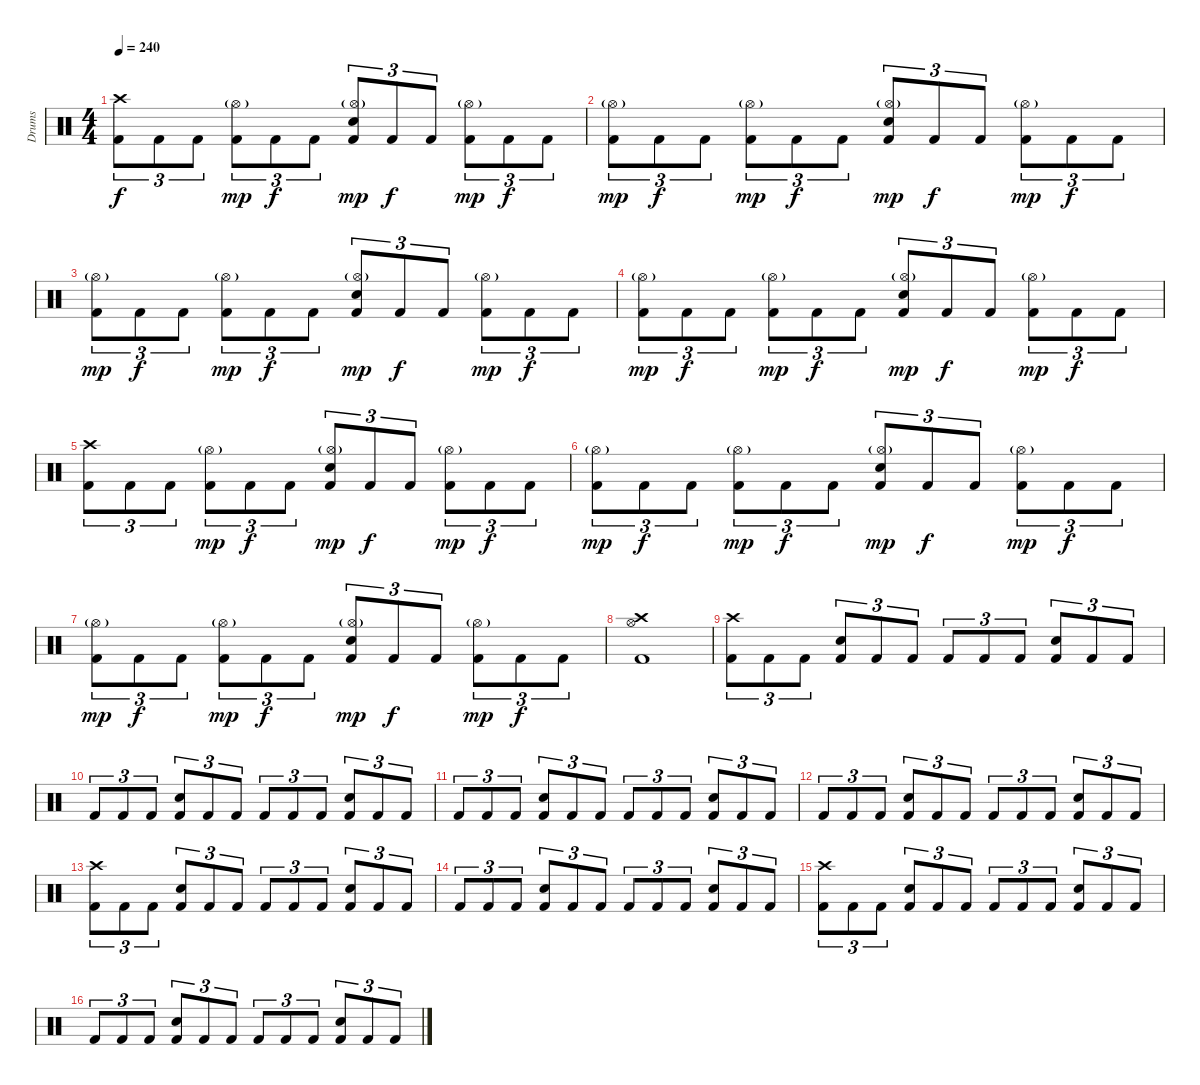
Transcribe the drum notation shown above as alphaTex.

\track ("Drums" "Drums") {instrument percussion}
\staff {score}
\articulation defaults
\ts (4 4)
\tempo 240
\clef neutral
\ks c
("Kick (hit) 2" "Crash high (hit)").8{tu (3 2) dy f} "Kick (hit) 2".8{tu (3 2)} "Kick (hit) 2".8{tu (3 2)} ("Kick (hit) 2" "Hi-Hat (open)"{g}).8{tu (3 2) dy mp} "Kick (hit) 2".8{tu (3 2) dy f} "Kick (hit) 2".8{tu (3 2)} ("Kick (hit) 2" "Hi-Hat (open)"{g} "Electric Snare (hit)").8{tu (3 2) dy mp} "Kick (hit) 2".8{tu (3 2) dy f} "Kick (hit) 2".8{tu (3 2)} ("Kick (hit) 2" "Hi-Hat (open)"{g}).8{tu (3 2) dy mp} "Kick (hit) 2".8{tu (3 2) dy f} "Kick (hit) 2".8{tu (3 2)} |
("Kick (hit) 2" "Hi-Hat (open)"{g}).8{tu (3 2) dy mp} "Kick (hit) 2".8{tu (3 2) dy f} "Kick (hit) 2".8{tu (3 2)} ("Kick (hit) 2" "Hi-Hat (open)"{g}).8{tu (3 2) dy mp} "Kick (hit) 2".8{tu (3 2) dy f} "Kick (hit) 2".8{tu (3 2)} ("Kick (hit) 2" "Hi-Hat (open)"{g} "Electric Snare (hit)").8{tu (3 2) dy mp} "Kick (hit) 2".8{tu (3 2) dy f} "Kick (hit) 2".8{tu (3 2)} ("Kick (hit) 2" "Hi-Hat (open)"{g}).8{tu (3 2) dy mp} "Kick (hit) 2".8{tu (3 2) dy f} "Kick (hit) 2".8{tu (3 2)} |
("Kick (hit) 2" "Hi-Hat (open)"{g}).8{tu (3 2) dy mp} "Kick (hit) 2".8{tu (3 2) dy f} "Kick (hit) 2".8{tu (3 2)} ("Kick (hit) 2" "Hi-Hat (open)"{g}).8{tu (3 2) dy mp} "Kick (hit) 2".8{tu (3 2) dy f} "Kick (hit) 2".8{tu (3 2)} ("Kick (hit) 2" "Hi-Hat (open)"{g} "Electric Snare (hit)").8{tu (3 2) dy mp} "Kick (hit) 2".8{tu (3 2) dy f} "Kick (hit) 2".8{tu (3 2)} ("Kick (hit) 2" "Hi-Hat (open)"{g}).8{tu (3 2) dy mp} "Kick (hit) 2".8{tu (3 2) dy f} "Kick (hit) 2".8{tu (3 2)} |
("Kick (hit) 2" "Hi-Hat (open)"{g}).8{tu (3 2) dy mp} "Kick (hit) 2".8{tu (3 2) dy f} "Kick (hit) 2".8{tu (3 2)} ("Kick (hit) 2" "Hi-Hat (open)"{g}).8{tu (3 2) dy mp} "Kick (hit) 2".8{tu (3 2) dy f} "Kick (hit) 2".8{tu (3 2)} ("Kick (hit) 2" "Hi-Hat (open)"{g} "Electric Snare (hit)").8{tu (3 2) dy mp} "Kick (hit) 2".8{tu (3 2) dy f} "Kick (hit) 2".8{tu (3 2)} ("Kick (hit) 2" "Hi-Hat (open)"{g}).8{tu (3 2) dy mp} "Kick (hit) 2".8{tu (3 2) dy f} "Kick (hit) 2".8{tu (3 2)} |
("Kick (hit) 2" "Crash high (hit)").8{tu (3 2)} "Kick (hit) 2".8{tu (3 2)} "Kick (hit) 2".8{tu (3 2)} ("Kick (hit) 2" "Hi-Hat (open)"{g}).8{tu (3 2) dy mp} "Kick (hit) 2".8{tu (3 2) dy f} "Kick (hit) 2".8{tu (3 2)} ("Kick (hit) 2" "Hi-Hat (open)"{g} "Electric Snare (hit)").8{tu (3 2) dy mp} "Kick (hit) 2".8{tu (3 2) dy f} "Kick (hit) 2".8{tu (3 2)} ("Kick (hit) 2" "Hi-Hat (open)"{g}).8{tu (3 2) dy mp} "Kick (hit) 2".8{tu (3 2) dy f} "Kick (hit) 2".8{tu (3 2)} |
("Kick (hit) 2" "Hi-Hat (open)"{g}).8{tu (3 2) dy mp} "Kick (hit) 2".8{tu (3 2) dy f} "Kick (hit) 2".8{tu (3 2)} ("Kick (hit) 2" "Hi-Hat (open)"{g}).8{tu (3 2) dy mp} "Kick (hit) 2".8{tu (3 2) dy f} "Kick (hit) 2".8{tu (3 2)} ("Kick (hit) 2" "Hi-Hat (open)"{g} "Electric Snare (hit)").8{tu (3 2) dy mp} "Kick (hit) 2".8{tu (3 2) dy f} "Kick (hit) 2".8{tu (3 2)} ("Kick (hit) 2" "Hi-Hat (open)"{g}).8{tu (3 2) dy mp} "Kick (hit) 2".8{tu (3 2) dy f} "Kick (hit) 2".8{tu (3 2)} |
("Kick (hit) 2" "Hi-Hat (open)"{g}).8{tu (3 2) dy mp} "Kick (hit) 2".8{tu (3 2) dy f} "Kick (hit) 2".8{tu (3 2)} ("Kick (hit) 2" "Hi-Hat (open)"{g}).8{tu (3 2) dy mp} "Kick (hit) 2".8{tu (3 2) dy f} "Kick (hit) 2".8{tu (3 2)} ("Kick (hit) 2" "Hi-Hat (open)"{g} "Electric Snare (hit)").8{tu (3 2) dy mp} "Kick (hit) 2".8{tu (3 2) dy f} "Kick (hit) 2".8{tu (3 2)} ("Kick (hit) 2" "Hi-Hat (open)"{g}).8{tu (3 2) dy mp} "Kick (hit) 2".8{tu (3 2) dy f} "Kick (hit) 2".8{tu (3 2)} |
("Kick (hit) 2" "Hi-Hat (open)" "Crash high (hit)").1 |
("Kick (hit) 2" "Crash high (hit)").8{tu (3 2)} "Kick (hit) 2".8{tu (3 2)} "Kick (hit) 2".8{tu (3 2)} ("Kick (hit) 2" "Electric Snare (hit)").8{tu (3 2)} "Kick (hit) 2".8{tu (3 2)} "Kick (hit) 2".8{tu (3 2)} "Kick (hit) 2".8{tu (3 2)} "Kick (hit) 2".8{tu (3 2)} "Kick (hit) 2".8{tu (3 2)} ("Kick (hit) 2" "Electric Snare (hit)").8{tu (3 2)} "Kick (hit) 2".8{tu (3 2)} "Kick (hit) 2".8{tu (3 2)} |
"Kick (hit) 2".8{tu (3 2)} "Kick (hit) 2".8{tu (3 2)} "Kick (hit) 2".8{tu (3 2)} ("Kick (hit) 2" "Electric Snare (hit)").8{tu (3 2)} "Kick (hit) 2".8{tu (3 2)} "Kick (hit) 2".8{tu (3 2)} "Kick (hit) 2".8{tu (3 2)} "Kick (hit) 2".8{tu (3 2)} "Kick (hit) 2".8{tu (3 2)} ("Kick (hit) 2" "Electric Snare (hit)").8{tu (3 2)} "Kick (hit) 2".8{tu (3 2)} "Kick (hit) 2".8{tu (3 2)} |
"Kick (hit) 2".8{tu (3 2)} "Kick (hit) 2".8{tu (3 2)} "Kick (hit) 2".8{tu (3 2)} ("Kick (hit) 2" "Electric Snare (hit)").8{tu (3 2)} "Kick (hit) 2".8{tu (3 2)} "Kick (hit) 2".8{tu (3 2)} "Kick (hit) 2".8{tu (3 2)} "Kick (hit) 2".8{tu (3 2)} "Kick (hit) 2".8{tu (3 2)} ("Kick (hit) 2" "Electric Snare (hit)").8{tu (3 2)} "Kick (hit) 2".8{tu (3 2)} "Kick (hit) 2".8{tu (3 2)} |
"Kick (hit) 2".8{tu (3 2)} "Kick (hit) 2".8{tu (3 2)} "Kick (hit) 2".8{tu (3 2)} ("Kick (hit) 2" "Electric Snare (hit)").8{tu (3 2)} "Kick (hit) 2".8{tu (3 2)} "Kick (hit) 2".8{tu (3 2)} "Kick (hit) 2".8{tu (3 2)} "Kick (hit) 2".8{tu (3 2)} "Kick (hit) 2".8{tu (3 2)} ("Kick (hit) 2" "Electric Snare (hit)").8{tu (3 2)} "Kick (hit) 2".8{tu (3 2)} "Kick (hit) 2".8{tu (3 2)} |
("Kick (hit) 2" "Crash high (hit)").8{tu (3 2)} "Kick (hit) 2".8{tu (3 2)} "Kick (hit) 2".8{tu (3 2)} ("Kick (hit) 2" "Electric Snare (hit)").8{tu (3 2)} "Kick (hit) 2".8{tu (3 2)} "Kick (hit) 2".8{tu (3 2)} "Kick (hit) 2".8{tu (3 2)} "Kick (hit) 2".8{tu (3 2)} "Kick (hit) 2".8{tu (3 2)} ("Kick (hit) 2" "Electric Snare (hit)").8{tu (3 2)} "Kick (hit) 2".8{tu (3 2)} "Kick (hit) 2".8{tu (3 2)} |
"Kick (hit) 2".8{tu (3 2)} "Kick (hit) 2".8{tu (3 2)} "Kick (hit) 2".8{tu (3 2)} ("Kick (hit) 2" "Electric Snare (hit)").8{tu (3 2)} "Kick (hit) 2".8{tu (3 2)} "Kick (hit) 2".8{tu (3 2)} "Kick (hit) 2".8{tu (3 2)} "Kick (hit) 2".8{tu (3 2)} "Kick (hit) 2".8{tu (3 2)} ("Kick (hit) 2" "Electric Snare (hit)").8{tu (3 2)} "Kick (hit) 2".8{tu (3 2)} "Kick (hit) 2".8{tu (3 2)} |
("Kick (hit) 2" "Crash high (hit)").8{tu (3 2)} "Kick (hit) 2".8{tu (3 2)} "Kick (hit) 2".8{tu (3 2)} ("Kick (hit) 2" "Electric Snare (hit)").8{tu (3 2)} "Kick (hit) 2".8{tu (3 2)} "Kick (hit) 2".8{tu (3 2)} "Kick (hit) 2".8{tu (3 2)} "Kick (hit) 2".8{tu (3 2)} "Kick (hit) 2".8{tu (3 2)} ("Kick (hit) 2" "Electric Snare (hit)").8{tu (3 2)} "Kick (hit) 2".8{tu (3 2)} "Kick (hit) 2".8{tu (3 2)} |
"Kick (hit) 2".8{tu (3 2)} "Kick (hit) 2".8{tu (3 2)} "Kick (hit) 2".8{tu (3 2)} ("Kick (hit) 2" "Electric Snare (hit)").8{tu (3 2)} "Kick (hit) 2".8{tu (3 2)} "Kick (hit) 2".8{tu (3 2)} "Kick (hit) 2".8{tu (3 2)} "Kick (hit) 2".8{tu (3 2)} "Kick (hit) 2".8{tu (3 2)} ("Kick (hit) 2" "Electric Snare (hit)").8{tu (3 2)} "Kick (hit) 2".8{tu (3 2)} "Kick (hit) 2".8{tu (3 2)}
